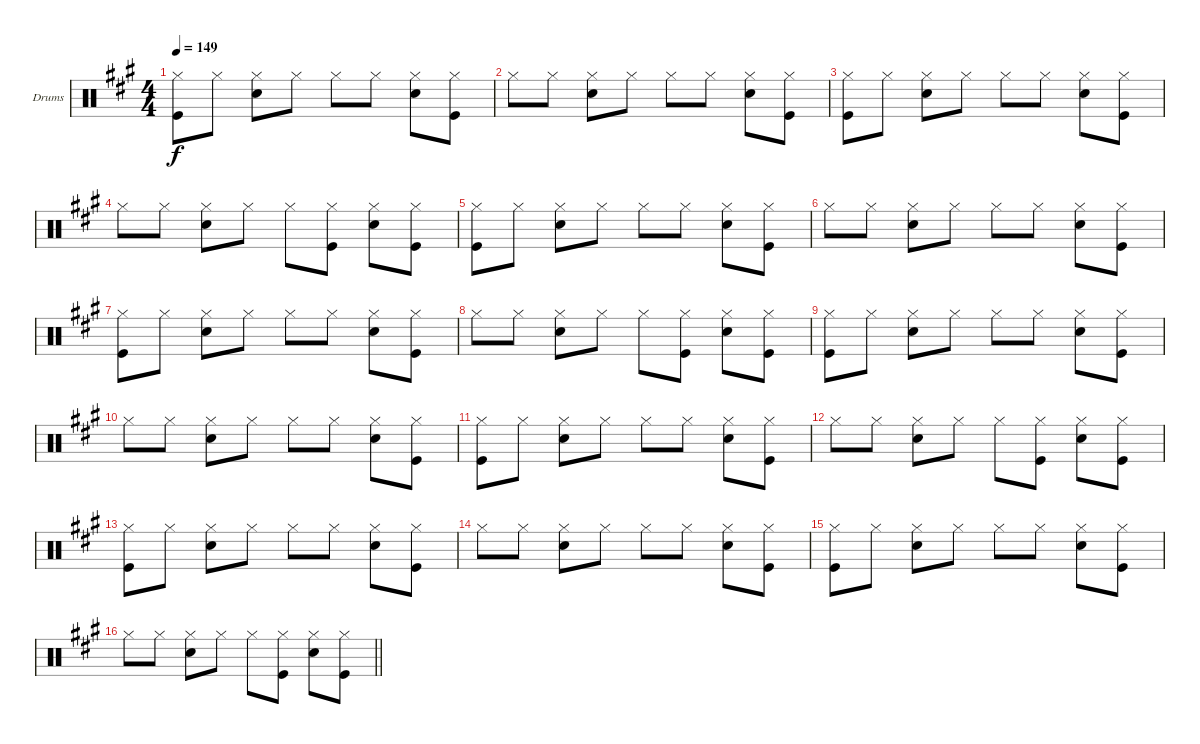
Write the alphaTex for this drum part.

\defaultSystemsLayout 4
\bracketExtendMode groupsimilarinstruments
\firstSystemTrackNameOrientation horizontal
\otherSystemsTrackNameOrientation horizontal
\track ("Drums" "Drums") {instrument percussion}
\staff {score}
\articulation defaults
\ts (4 4)
\tempo 149
\clef neutral
\ks a
("Kick (hit)" "Hi-Hat (closed)").8{dy f} "Hi-Hat (closed)".8 ("Hi-Hat (closed)" "Snare (hit) 2").8 "Hi-Hat (closed)".8 "Hi-Hat (closed)".8 "Hi-Hat (closed)".8 ("Hi-Hat (closed)" "Snare (hit) 2").8 ("Hi-Hat (closed)" "Kick (hit)").8 |
"Hi-Hat (closed)".8 "Hi-Hat (closed)".8 ("Hi-Hat (closed)" "Snare (hit) 2").8 "Hi-Hat (closed)".8 "Hi-Hat (closed)".8 "Hi-Hat (closed)".8 ("Hi-Hat (closed)" "Snare (hit) 2").8 ("Hi-Hat (closed)" "Kick (hit)").8 |
("Kick (hit)" "Hi-Hat (closed)").8 "Hi-Hat (closed)".8 ("Hi-Hat (closed)" "Snare (hit) 2").8 "Hi-Hat (closed)".8 "Hi-Hat (closed)".8 "Hi-Hat (closed)".8 ("Hi-Hat (closed)" "Snare (hit) 2").8 ("Hi-Hat (closed)" "Kick (hit)").8 |
"Hi-Hat (closed)".8 "Hi-Hat (closed)".8 ("Hi-Hat (closed)" "Snare (hit) 2").8 "Hi-Hat (closed)".8 "Hi-Hat (closed)".8 ("Hi-Hat (closed)" "Kick (hit)").8 ("Hi-Hat (closed)" "Snare (hit) 2").8 ("Hi-Hat (closed)" "Kick (hit)").8 |
("Kick (hit)" "Hi-Hat (closed)").8 "Hi-Hat (closed)".8 ("Hi-Hat (closed)" "Snare (hit) 2").8 "Hi-Hat (closed)".8 "Hi-Hat (closed)".8 "Hi-Hat (closed)".8 ("Hi-Hat (closed)" "Snare (hit) 2").8 ("Hi-Hat (closed)" "Kick (hit)").8 |
"Hi-Hat (closed)".8 "Hi-Hat (closed)".8 ("Hi-Hat (closed)" "Snare (hit) 2").8 "Hi-Hat (closed)".8 "Hi-Hat (closed)".8 "Hi-Hat (closed)".8 ("Hi-Hat (closed)" "Snare (hit) 2").8 ("Hi-Hat (closed)" "Kick (hit)").8 |
("Kick (hit)" "Hi-Hat (closed)").8 "Hi-Hat (closed)".8 ("Hi-Hat (closed)" "Snare (hit) 2").8 "Hi-Hat (closed)".8 "Hi-Hat (closed)".8 "Hi-Hat (closed)".8 ("Hi-Hat (closed)" "Snare (hit) 2").8 ("Hi-Hat (closed)" "Kick (hit)").8 |
"Hi-Hat (closed)".8 "Hi-Hat (closed)".8 ("Hi-Hat (closed)" "Snare (hit) 2").8 "Hi-Hat (closed)".8 "Hi-Hat (closed)".8 ("Hi-Hat (closed)" "Kick (hit)").8 ("Hi-Hat (closed)" "Snare (hit) 2").8 ("Hi-Hat (closed)" "Kick (hit)").8 |
("Kick (hit)" "Hi-Hat (closed)").8 "Hi-Hat (closed)".8 ("Hi-Hat (closed)" "Snare (hit) 2").8 "Hi-Hat (closed)".8 "Hi-Hat (closed)".8 "Hi-Hat (closed)".8 ("Hi-Hat (closed)" "Snare (hit) 2").8 ("Hi-Hat (closed)" "Kick (hit)").8 |
"Hi-Hat (closed)".8 "Hi-Hat (closed)".8 ("Hi-Hat (closed)" "Snare (hit) 2").8 "Hi-Hat (closed)".8 "Hi-Hat (closed)".8 "Hi-Hat (closed)".8 ("Hi-Hat (closed)" "Snare (hit) 2").8 ("Hi-Hat (closed)" "Kick (hit)").8 |
("Kick (hit)" "Hi-Hat (closed)").8 "Hi-Hat (closed)".8 ("Hi-Hat (closed)" "Snare (hit) 2").8 "Hi-Hat (closed)".8 "Hi-Hat (closed)".8 "Hi-Hat (closed)".8 ("Hi-Hat (closed)" "Snare (hit) 2").8 ("Hi-Hat (closed)" "Kick (hit)").8 |
"Hi-Hat (closed)".8 "Hi-Hat (closed)".8 ("Hi-Hat (closed)" "Snare (hit) 2").8 "Hi-Hat (closed)".8 "Hi-Hat (closed)".8 ("Hi-Hat (closed)" "Kick (hit)").8 ("Hi-Hat (closed)" "Snare (hit) 2").8 ("Hi-Hat (closed)" "Kick (hit)").8 |
("Kick (hit)" "Hi-Hat (closed)").8 "Hi-Hat (closed)".8 ("Hi-Hat (closed)" "Snare (hit) 2").8 "Hi-Hat (closed)".8 "Hi-Hat (closed)".8 "Hi-Hat (closed)".8 ("Hi-Hat (closed)" "Snare (hit) 2").8 ("Hi-Hat (closed)" "Kick (hit)").8 |
"Hi-Hat (closed)".8 "Hi-Hat (closed)".8 ("Hi-Hat (closed)" "Snare (hit) 2").8 "Hi-Hat (closed)".8 "Hi-Hat (closed)".8 "Hi-Hat (closed)".8 ("Hi-Hat (closed)" "Snare (hit) 2").8 ("Hi-Hat (closed)" "Kick (hit)").8 |
("Kick (hit)" "Hi-Hat (closed)").8 "Hi-Hat (closed)".8 ("Hi-Hat (closed)" "Snare (hit) 2").8 "Hi-Hat (closed)".8 "Hi-Hat (closed)".8 "Hi-Hat (closed)".8 ("Hi-Hat (closed)" "Snare (hit) 2").8 ("Hi-Hat (closed)" "Kick (hit)").8 |
\barLineRight lightlight "Hi-Hat (closed)".8 "Hi-Hat (closed)".8
("Hi-Hat (closed)" "Snare (hit) 2").8 "Hi-Hat (closed)".8 "Hi-Hat (closed)".8 ("Hi-Hat (closed)" "Kick (hit)").8 ("Hi-Hat (closed)" "Snare (hit) 2").8 ("Hi-Hat (closed)" "Kick (hit)").8
